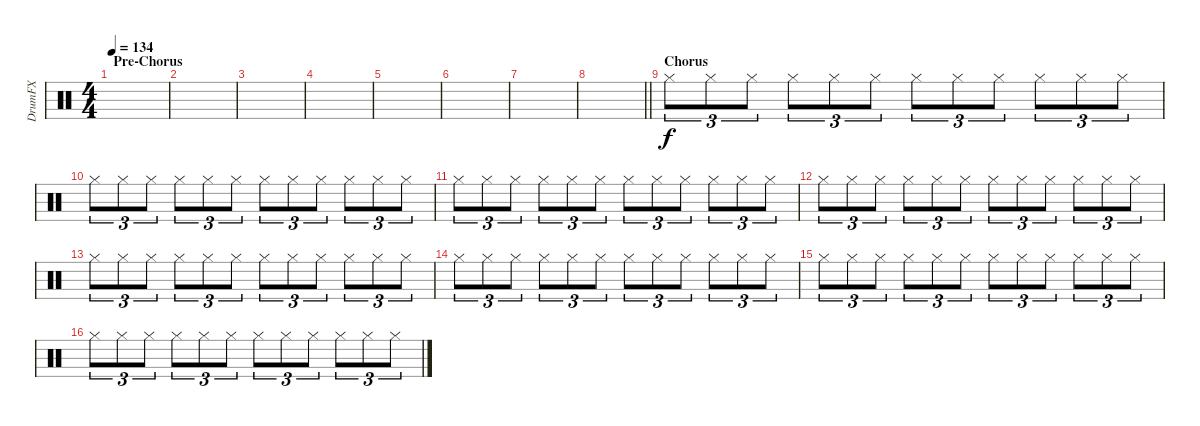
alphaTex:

\track ("DrumFX" "DrumFX") {instrument percussion}
\staff {score}
\articulation defaults
\ts (4 4)
\section ("" "Pre-Chorus")
\tempo 134
\clef neutral
\ks c
|
|
|
|
|
|
|
\barLineRight lightlight
|
\section ("" "Chorus")
"Hi-Hat (closed)".8{tu (3 2)} "Hi-Hat (closed)".8{tu (3 2)} "Hi-Hat (closed)".8{tu (3 2)} "Hi-Hat (closed)".8{tu (3 2)} "Hi-Hat (closed)".8{tu (3 2)} "Hi-Hat (closed)".8{tu (3 2)} "Hi-Hat (closed)".8{tu (3 2)} "Hi-Hat (closed)".8{tu (3 2)} "Hi-Hat (closed)".8{tu (3 2)} "Hi-Hat (closed)".8{tu (3 2)} "Hi-Hat (closed)".8{tu (3 2)} "Hi-Hat (closed)".8{tu (3 2)} |
"Hi-Hat (closed)".8{tu (3 2)} "Hi-Hat (closed)".8{tu (3 2)} "Hi-Hat (closed)".8{tu (3 2)} "Hi-Hat (closed)".8{tu (3 2)} "Hi-Hat (closed)".8{tu (3 2)} "Hi-Hat (closed)".8{tu (3 2)} "Hi-Hat (closed)".8{tu (3 2)} "Hi-Hat (closed)".8{tu (3 2)} "Hi-Hat (closed)".8{tu (3 2)} "Hi-Hat (closed)".8{tu (3 2)} "Hi-Hat (closed)".8{tu (3 2)} "Hi-Hat (closed)".8{tu (3 2)} |
"Hi-Hat (closed)".8{tu (3 2)} "Hi-Hat (closed)".8{tu (3 2)} "Hi-Hat (closed)".8{tu (3 2)} "Hi-Hat (closed)".8{tu (3 2)} "Hi-Hat (closed)".8{tu (3 2)} "Hi-Hat (closed)".8{tu (3 2)} "Hi-Hat (closed)".8{tu (3 2)} "Hi-Hat (closed)".8{tu (3 2)} "Hi-Hat (closed)".8{tu (3 2)} "Hi-Hat (closed)".8{tu (3 2)} "Hi-Hat (closed)".8{tu (3 2)} "Hi-Hat (closed)".8{tu (3 2)} |
"Hi-Hat (closed)".8{tu (3 2)} "Hi-Hat (closed)".8{tu (3 2)} "Hi-Hat (closed)".8{tu (3 2)} "Hi-Hat (closed)".8{tu (3 2)} "Hi-Hat (closed)".8{tu (3 2)} "Hi-Hat (closed)".8{tu (3 2)} "Hi-Hat (closed)".8{tu (3 2)} "Hi-Hat (closed)".8{tu (3 2)} "Hi-Hat (closed)".8{tu (3 2)} "Hi-Hat (closed)".8{tu (3 2)} "Hi-Hat (closed)".8{tu (3 2)} "Hi-Hat (closed)".8{tu (3 2)} |
"Hi-Hat (closed)".8{tu (3 2)} "Hi-Hat (closed)".8{tu (3 2)} "Hi-Hat (closed)".8{tu (3 2)} "Hi-Hat (closed)".8{tu (3 2)} "Hi-Hat (closed)".8{tu (3 2)} "Hi-Hat (closed)".8{tu (3 2)} "Hi-Hat (closed)".8{tu (3 2)} "Hi-Hat (closed)".8{tu (3 2)} "Hi-Hat (closed)".8{tu (3 2)} "Hi-Hat (closed)".8{tu (3 2)} "Hi-Hat (closed)".8{tu (3 2)} "Hi-Hat (closed)".8{tu (3 2)} |
"Hi-Hat (closed)".8{tu (3 2)} "Hi-Hat (closed)".8{tu (3 2)} "Hi-Hat (closed)".8{tu (3 2)} "Hi-Hat (closed)".8{tu (3 2)} "Hi-Hat (closed)".8{tu (3 2)} "Hi-Hat (closed)".8{tu (3 2)} "Hi-Hat (closed)".8{tu (3 2)} "Hi-Hat (closed)".8{tu (3 2)} "Hi-Hat (closed)".8{tu (3 2)} "Hi-Hat (closed)".8{tu (3 2)} "Hi-Hat (closed)".8{tu (3 2)} "Hi-Hat (closed)".8{tu (3 2)} |
"Hi-Hat (closed)".8{tu (3 2)} "Hi-Hat (closed)".8{tu (3 2)} "Hi-Hat (closed)".8{tu (3 2)} "Hi-Hat (closed)".8{tu (3 2)} "Hi-Hat (closed)".8{tu (3 2)} "Hi-Hat (closed)".8{tu (3 2)} "Hi-Hat (closed)".8{tu (3 2)} "Hi-Hat (closed)".8{tu (3 2)} "Hi-Hat (closed)".8{tu (3 2)} "Hi-Hat (closed)".8{tu (3 2)} "Hi-Hat (closed)".8{tu (3 2)} "Hi-Hat (closed)".8{tu (3 2)} |
"Hi-Hat (closed)".8{tu (3 2)} "Hi-Hat (closed)".8{tu (3 2)} "Hi-Hat (closed)".8{tu (3 2)} "Hi-Hat (closed)".8{tu (3 2)} "Hi-Hat (closed)".8{tu (3 2)} "Hi-Hat (closed)".8{tu (3 2)} "Hi-Hat (closed)".8{tu (3 2)} "Hi-Hat (closed)".8{tu (3 2)} "Hi-Hat (closed)".8{tu (3 2)} "Hi-Hat (closed)".8{tu (3 2)} "Hi-Hat (closed)".8{tu (3 2)} "Hi-Hat (closed)".8{tu (3 2)}
